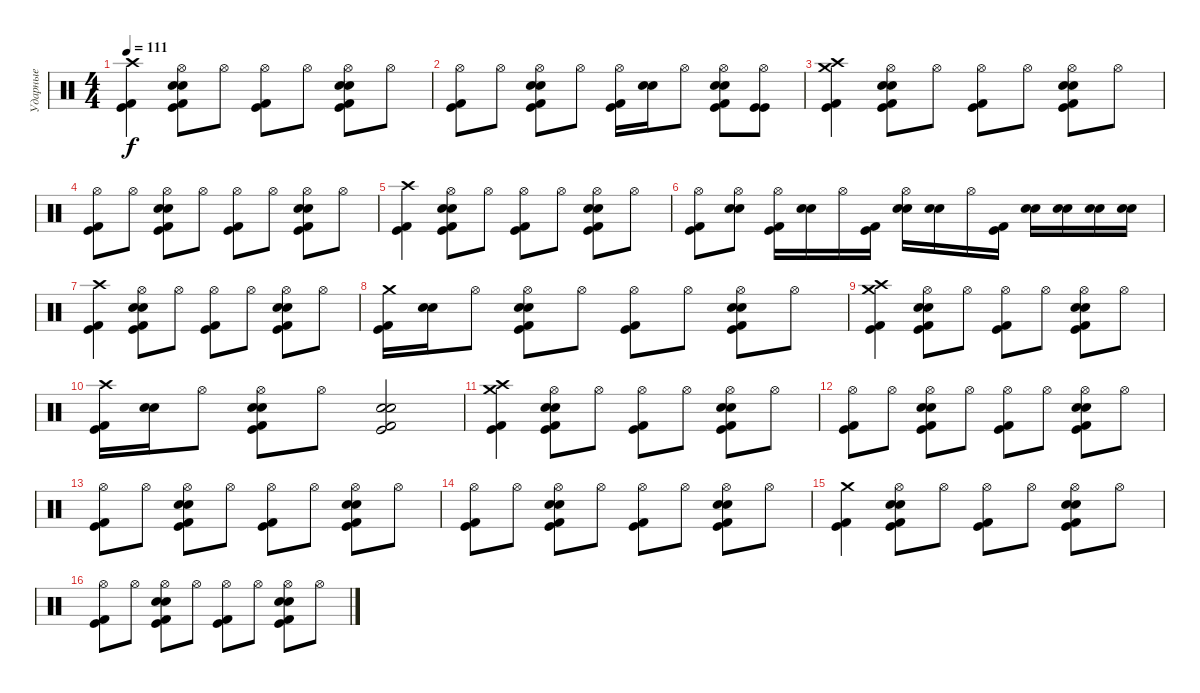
\track ("Ударные" "Ударные") {instrument percussion}
\staff {score}
\articulation defaults
\ts (4 4)
\tempo 111
\clef neutral
\ks c
("Crash high (hit)" "Kick (hit)" "Kick (hit) 2").4{dy f} ("Hi-Hat (open)" "Kick (hit)" "Kick (hit) 2" "Snare (hit) 2" "Electric Snare (hit)").8 "Hi-Hat (open)".8 ("Hi-Hat (open)" "Kick (hit)" "Kick (hit) 2").8 "Hi-Hat (open)".8 ("Hi-Hat (open)" "Kick (hit)" "Kick (hit) 2" "Snare (hit) 2" "Electric Snare (hit)").8 "Hi-Hat (open)".8 |
("Hi-Hat (open)" "Kick (hit)" "Kick (hit) 2").8 "Hi-Hat (open)".8 ("Hi-Hat (open)" "Kick (hit)" "Kick (hit) 2" "Snare (hit) 2" "Electric Snare (hit)").8 "Hi-Hat (open)".8 ("Hi-Hat (open)" "Kick (hit)" "Kick (hit) 2").16 ("Snare (hit) 2" "Electric Snare (hit)").16 "Hi-Hat (open)".8 ("Hi-Hat (open)" "Kick (hit)" "Kick (hit) 2" "Snare (hit) 2" "Electric Snare (hit)").8 ("Hi-Hat (open)" "Kick (hit)" "Kick (hit)").8 |
("Crash high (hit)" "Kick (hit)" "Kick (hit) 2" "Crash medium (hit)").4 ("Hi-Hat (open)" "Kick (hit)" "Kick (hit) 2" "Snare (hit) 2" "Electric Snare (hit)").8 "Hi-Hat (open)".8 ("Hi-Hat (open)" "Kick (hit)" "Kick (hit) 2").8 "Hi-Hat (open)".8 ("Hi-Hat (open)" "Kick (hit)" "Kick (hit) 2" "Snare (hit) 2" "Electric Snare (hit)").8 "Hi-Hat (open)".8 |
("Hi-Hat (open)" "Kick (hit)" "Kick (hit) 2").8 "Hi-Hat (open)".8 ("Hi-Hat (open)" "Kick (hit)" "Kick (hit) 2" "Snare (hit) 2" "Electric Snare (hit)").8 "Hi-Hat (open)".8 ("Hi-Hat (open)" "Kick (hit)" "Kick (hit) 2").8 "Hi-Hat (open)".8 ("Hi-Hat (open)" "Kick (hit)" "Kick (hit) 2" "Snare (hit) 2" "Electric Snare (hit)").8 "Hi-Hat (open)".8 |
("Crash high (hit)" "Kick (hit)" "Kick (hit) 2").4 ("Hi-Hat (open)" "Kick (hit)" "Kick (hit) 2" "Snare (hit) 2" "Electric Snare (hit)").8 "Hi-Hat (open)".8 ("Hi-Hat (open)" "Kick (hit)" "Kick (hit) 2").8 "Hi-Hat (open)".8 ("Hi-Hat (open)" "Kick (hit)" "Kick (hit) 2" "Snare (hit) 2" "Electric Snare (hit)").8 "Hi-Hat (open)".8 |
("Hi-Hat (open)" "Kick (hit)" "Kick (hit) 2").8 ("Hi-Hat (open)" "Snare (hit) 2" "Electric Snare (hit)").8 ("Hi-Hat (open)" "Kick (hit)" "Kick (hit) 2").16 ("Snare (hit) 2" "Electric Snare (hit)").16 "Hi-Hat (open)".16 ("Kick (hit)" "Kick (hit) 2").16 ("Hi-Hat (open)" "Snare (hit) 2" "Electric Snare (hit)").16 ("Snare (hit) 2" "Electric Snare (hit)").16 "Hi-Hat (open)".16 ("Kick (hit)" "Kick (hit) 2").16 ("Snare (hit) 2" "Electric Snare (hit)").16 ("Snare (hit) 2" "Electric Snare (hit)").16 ("Snare (hit) 2" "Electric Snare (hit)").16 ("Snare (hit) 2" "Electric Snare (hit)").16 |
("Crash high (hit)" "Kick (hit)" "Kick (hit) 2").4 ("Hi-Hat (open)" "Kick (hit)" "Kick (hit) 2" "Snare (hit) 2" "Electric Snare (hit)").8 "Hi-Hat (open)".8 ("Hi-Hat (open)" "Kick (hit)" "Kick (hit) 2").8 "Hi-Hat (open)".8 ("Hi-Hat (open)" "Kick (hit)" "Kick (hit) 2" "Snare (hit) 2" "Electric Snare (hit)").8 "Hi-Hat (open)".8 |
("Crash medium (hit)" "Kick (hit)" "Kick (hit) 2").16 ("Snare (hit) 2" "Electric Snare (hit)").16 "Hi-Hat (open)".8 ("Hi-Hat (open)" "Kick (hit)" "Kick (hit) 2" "Snare (hit) 2" "Electric Snare (hit)").8 "Hi-Hat (open)".8 ("Hi-Hat (open)" "Kick (hit)" "Kick (hit) 2").8 "Hi-Hat (open)".8 ("Hi-Hat (open)" "Kick (hit)" "Kick (hit) 2" "Snare (hit) 2" "Electric Snare (hit)").8 "Hi-Hat (open)".8 |
("Crash high (hit)" "Kick (hit)" "Kick (hit) 2" "Crash medium (hit)").4 ("Hi-Hat (open)" "Kick (hit)" "Kick (hit) 2" "Snare (hit) 2" "Electric Snare (hit)").8 "Hi-Hat (open)".8 ("Hi-Hat (open)" "Kick (hit)" "Kick (hit) 2").8 "Hi-Hat (open)".8 ("Hi-Hat (open)" "Kick (hit)" "Kick (hit) 2" "Snare (hit) 2" "Electric Snare (hit)").8 "Hi-Hat (open)".8 |
("Crash high (hit)" "Kick (hit)" "Kick (hit) 2").16 ("Snare (hit) 2" "Electric Snare (hit)").16 "Hi-Hat (open)".8 ("Hi-Hat (open)" "Kick (hit)" "Kick (hit) 2" "Snare (hit) 2" "Electric Snare (hit)").8 "Hi-Hat (open)".8 ("Kick (hit)" "Kick (hit) 2" "Snare (hit) 2" "Electric Snare (hit)").2 |
("Crash high (hit)" "Kick (hit)" "Kick (hit) 2" "Crash medium (hit)").4 ("Hi-Hat (open)" "Kick (hit)" "Kick (hit) 2" "Snare (hit) 2" "Electric Snare (hit)").8 "Hi-Hat (open)".8 ("Hi-Hat (open)" "Kick (hit)" "Kick (hit) 2").8 "Hi-Hat (open)".8 ("Hi-Hat (open)" "Kick (hit)" "Kick (hit) 2" "Snare (hit) 2" "Electric Snare (hit)").8 "Hi-Hat (open)".8 |
("Hi-Hat (open)" "Kick (hit)" "Kick (hit) 2").8 "Hi-Hat (open)".8 ("Hi-Hat (open)" "Kick (hit)" "Kick (hit) 2" "Snare (hit) 2" "Electric Snare (hit)").8 "Hi-Hat (open)".8 ("Hi-Hat (open)" "Kick (hit)" "Kick (hit) 2").8 "Hi-Hat (open)".8 ("Hi-Hat (open)" "Kick (hit)" "Kick (hit) 2" "Snare (hit) 2" "Electric Snare (hit)").8 "Hi-Hat (open)".8 |
("Hi-Hat (open)" "Kick (hit)" "Kick (hit) 2").8 "Hi-Hat (open)".8 ("Hi-Hat (open)" "Kick (hit)" "Kick (hit) 2" "Snare (hit) 2" "Electric Snare (hit)").8 "Hi-Hat (open)".8 ("Hi-Hat (open)" "Kick (hit)" "Kick (hit) 2").8 "Hi-Hat (open)".8 ("Hi-Hat (open)" "Kick (hit)" "Kick (hit) 2" "Snare (hit) 2" "Electric Snare (hit)").8 "Hi-Hat (open)".8 |
("Hi-Hat (open)" "Kick (hit)" "Kick (hit) 2").8 "Hi-Hat (open)".8 ("Hi-Hat (open)" "Kick (hit)" "Kick (hit) 2" "Snare (hit) 2" "Electric Snare (hit)").8 "Hi-Hat (open)".8 ("Hi-Hat (open)" "Kick (hit)" "Kick (hit) 2").8 "Hi-Hat (open)".8 ("Hi-Hat (open)" "Kick (hit)" "Kick (hit) 2" "Snare (hit) 2" "Electric Snare (hit)").8 "Hi-Hat (open)".8 |
("Crash medium (hit)" "Kick (hit)" "Kick (hit) 2").4 ("Hi-Hat (open)" "Kick (hit)" "Kick (hit) 2" "Snare (hit) 2" "Electric Snare (hit)").8 "Hi-Hat (open)".8 ("Hi-Hat (open)" "Kick (hit)" "Kick (hit) 2").8 "Hi-Hat (open)".8 ("Hi-Hat (open)" "Kick (hit)" "Kick (hit) 2" "Snare (hit) 2" "Electric Snare (hit)").8 "Hi-Hat (open)".8 |
("Hi-Hat (open)" "Kick (hit)" "Kick (hit) 2").8 "Hi-Hat (open)".8 ("Hi-Hat (open)" "Kick (hit)" "Kick (hit) 2" "Snare (hit) 2" "Electric Snare (hit)").8 "Hi-Hat (open)".8 ("Hi-Hat (open)" "Kick (hit)" "Kick (hit) 2").8 "Hi-Hat (open)".8 ("Hi-Hat (open)" "Kick (hit)" "Kick (hit) 2" "Snare (hit) 2" "Electric Snare (hit)").8 "Hi-Hat (open)".8
